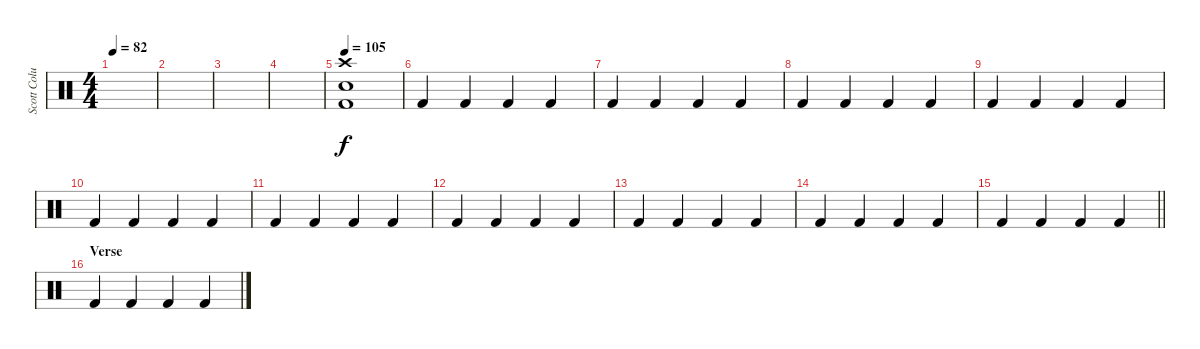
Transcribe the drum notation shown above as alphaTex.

\track ("Scott Columbus" "Scott Colu") {instrument percussion}
\staff {score}
\articulation defaults
\ts (4 4)
\tempo 82
\clef neutral
\ks c
|
|
|
|
\tempo 105
("Crash high (hit)" "Kick (hit) 2" "Snare (hit) 2").1{volume 8} |
"Kick (hit) 2".4 "Kick (hit) 2".4 "Kick (hit) 2".4 "Kick (hit) 2".4 |
"Kick (hit) 2".4 "Kick (hit) 2".4 "Kick (hit) 2".4 "Kick (hit) 2".4 |
"Kick (hit) 2".4 "Kick (hit) 2".4 "Kick (hit) 2".4 "Kick (hit) 2".4 |
"Kick (hit) 2".4 "Kick (hit) 2".4 "Kick (hit) 2".4 "Kick (hit) 2".4 |
"Kick (hit) 2".4 "Kick (hit) 2".4 "Kick (hit) 2".4 "Kick (hit) 2".4 |
"Kick (hit) 2".4 "Kick (hit) 2".4 "Kick (hit) 2".4 "Kick (hit) 2".4 |
"Kick (hit) 2".4 "Kick (hit) 2".4 "Kick (hit) 2".4 "Kick (hit) 2".4 |
"Kick (hit) 2".4 "Kick (hit) 2".4 "Kick (hit) 2".4 "Kick (hit) 2".4 |
"Kick (hit) 2".4 "Kick (hit) 2".4 "Kick (hit) 2".4 "Kick (hit) 2".4 |
\barLineRight lightlight "Kick (hit) 2".4 "Kick (hit) 2".4 "Kick (hit) 2".4 "Kick (hit) 2".4
|
\section ("" "Verse")
"Kick (hit) 2".4 "Kick (hit) 2".4 "Kick (hit) 2".4 "Kick (hit) 2".4
